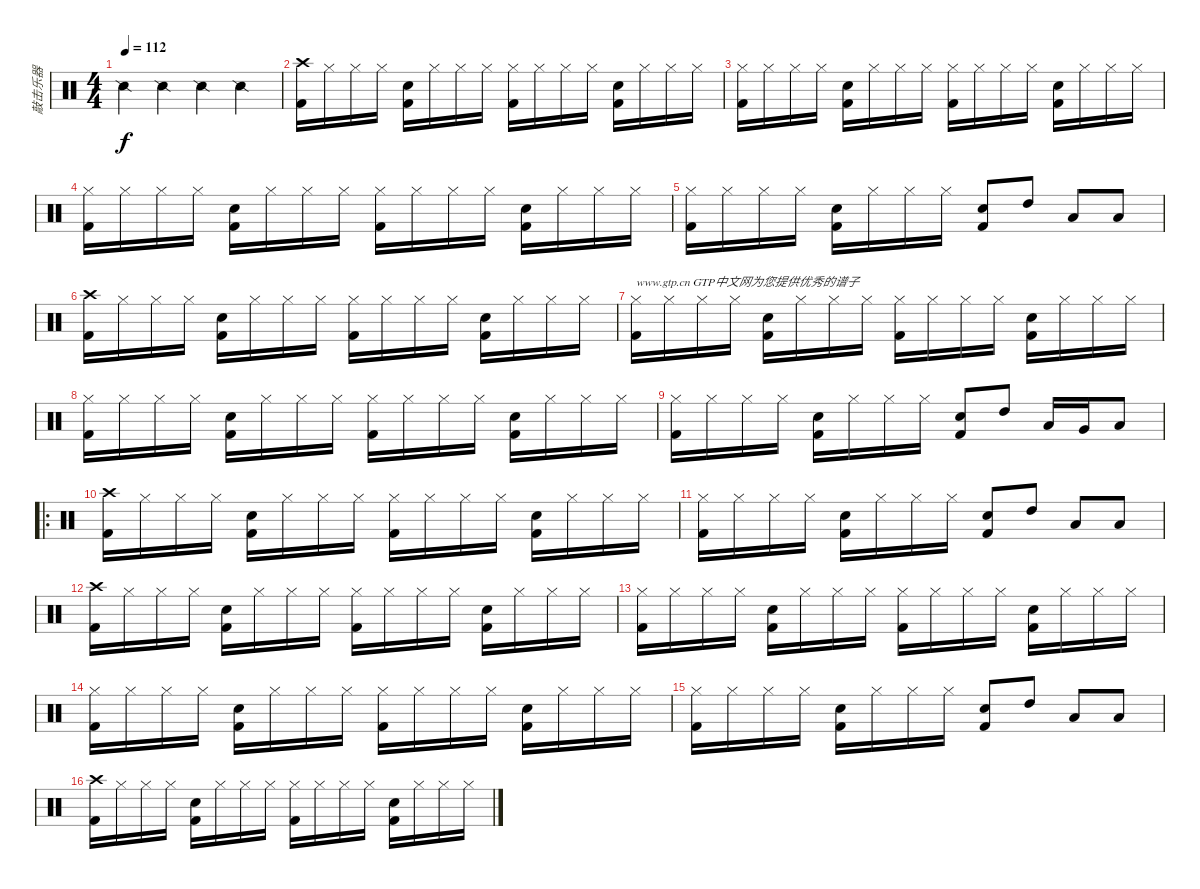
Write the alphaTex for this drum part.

\track ("敲击乐器" "敲击乐器") {instrument percussion}
\staff {score}
\articulation defaults
\ts (4 4)
\tempo 112
\clef neutral
\ks c "Snare (side stick) 2".4{dy f} "Snare (side stick) 2".4 "Snare (side stick) 2".4 "Snare (side stick) 2".4
|
("Crash high (hit)" "Kick (hit) 2").16 "Hi-Hat (closed)".16 "Hi-Hat (closed)".16 "Hi-Hat (closed)".16 ("Snare (hit) 2" "Kick (hit) 2").16 "Hi-Hat (closed)".16 "Hi-Hat (closed)".16 "Hi-Hat (closed)".16 ("Hi-Hat (closed)" "Kick (hit) 2").16 "Hi-Hat (closed)".16 "Hi-Hat (closed)".16 "Hi-Hat (closed)".16 ("Snare (hit) 2" "Kick (hit) 2").16 "Hi-Hat (closed)".16 "Hi-Hat (closed)".16 "Hi-Hat (closed)".16 |
("Hi-Hat (closed)" "Kick (hit) 2").16 "Hi-Hat (closed)".16 "Hi-Hat (closed)".16 "Hi-Hat (closed)".16 ("Snare (hit) 2" "Kick (hit) 2").16 "Hi-Hat (closed)".16 "Hi-Hat (closed)".16 "Hi-Hat (closed)".16 ("Hi-Hat (closed)" "Kick (hit) 2").16 "Hi-Hat (closed)".16 "Hi-Hat (closed)".16 "Hi-Hat (closed)".16 ("Snare (hit) 2" "Kick (hit) 2").16 "Hi-Hat (closed)".16 "Hi-Hat (closed)".16 "Hi-Hat (closed)".16 |
("Hi-Hat (closed)" "Kick (hit) 2").16 "Hi-Hat (closed)".16 "Hi-Hat (closed)".16 "Hi-Hat (closed)".16 ("Snare (hit) 2" "Kick (hit) 2").16 "Hi-Hat (closed)".16 "Hi-Hat (closed)".16 "Hi-Hat (closed)".16 ("Hi-Hat (closed)" "Kick (hit) 2").16 "Hi-Hat (closed)".16 "Hi-Hat (closed)".16 "Hi-Hat (closed)".16 ("Snare (hit) 2" "Kick (hit) 2").16 "Hi-Hat (closed)".16 "Hi-Hat (closed)".16 "Hi-Hat (closed)".16 |
("Hi-Hat (closed)" "Kick (hit) 2").16 "Hi-Hat (closed)".16 "Hi-Hat (closed)".16 "Hi-Hat (closed)".16 ("Snare (hit) 2" "Kick (hit) 2").16 "Hi-Hat (closed)".16 "Hi-Hat (closed)".16 "Hi-Hat (closed)".16 ("Snare (hit) 2" "Kick (hit) 2").8 "High Tom (hit)".8 "Low Tom (hit)".8 "Low Floor Tom (hit)".8 |
("Crash high (hit)" "Kick (hit) 2").16 "Hi-Hat (closed)".16 "Hi-Hat (closed)".16 "Hi-Hat (closed)".16 ("Snare (hit) 2" "Kick (hit) 2").16 "Hi-Hat (closed)".16 "Hi-Hat (closed)".16 "Hi-Hat (closed)".16 ("Hi-Hat (closed)" "Kick (hit) 2").16 "Hi-Hat (closed)".16 "Hi-Hat (closed)".16 "Hi-Hat (closed)".16 ("Snare (hit) 2" "Kick (hit) 2").16 "Hi-Hat (closed)".16 "Hi-Hat (closed)".16 "Hi-Hat (closed)".16 |
("Hi-Hat (closed)" "Kick (hit) 2").16{txt "www.gtp.cn GTP中文网为您提供优秀的谱子"} "Hi-Hat (closed)".16 "Hi-Hat (closed)".16 "Hi-Hat (closed)".16 ("Snare (hit) 2" "Kick (hit) 2").16 "Hi-Hat (closed)".16 "Hi-Hat (closed)".16 "Hi-Hat (closed)".16 ("Hi-Hat (closed)" "Kick (hit) 2").16 "Hi-Hat (closed)".16 "Hi-Hat (closed)".16 "Hi-Hat (closed)".16 ("Snare (hit) 2" "Kick (hit) 2").16 "Hi-Hat (closed)".16 "Hi-Hat (closed)".16 "Hi-Hat (closed)".16 |
("Hi-Hat (closed)" "Kick (hit) 2").16 "Hi-Hat (closed)".16 "Hi-Hat (closed)".16 "Hi-Hat (closed)".16 ("Snare (hit) 2" "Kick (hit) 2").16 "Hi-Hat (closed)".16 "Hi-Hat (closed)".16 "Hi-Hat (closed)".16 ("Hi-Hat (closed)" "Kick (hit) 2").16 "Hi-Hat (closed)".16 "Hi-Hat (closed)".16 "Hi-Hat (closed)".16 ("Snare (hit) 2" "Kick (hit) 2").16 "Hi-Hat (closed)".16 "Hi-Hat (closed)".16 "Hi-Hat (closed)".16 |
("Hi-Hat (closed)" "Kick (hit) 2").16 "Hi-Hat (closed)".16 "Hi-Hat (closed)".16 "Hi-Hat (closed)".16 ("Snare (hit) 2" "Kick (hit) 2").16 "Hi-Hat (closed)".16 "Hi-Hat (closed)".16 "Hi-Hat (closed)".16 ("Snare (hit) 2" "Kick (hit) 2").8 "High Tom (hit)".8 "Low Tom (hit)".16 "Very Low Tom (hit)".16 "Low Floor Tom (hit)".8 |
\ro
("Crash high (hit)" "Kick (hit) 2").16 "Hi-Hat (closed)".16 "Hi-Hat (closed)".16 "Hi-Hat (closed)".16 ("Snare (hit) 2" "Kick (hit) 2").16 "Hi-Hat (closed)".16 "Hi-Hat (closed)".16 "Hi-Hat (closed)".16 ("Hi-Hat (closed)" "Kick (hit) 2").16 "Hi-Hat (closed)".16 "Hi-Hat (closed)".16 "Hi-Hat (closed)".16 ("Snare (hit) 2" "Kick (hit) 2").16 "Hi-Hat (closed)".16 "Hi-Hat (closed)".16 "Hi-Hat (closed)".16 |
("Hi-Hat (closed)" "Kick (hit) 2").16 "Hi-Hat (closed)".16 "Hi-Hat (closed)".16 "Hi-Hat (closed)".16 ("Snare (hit) 2" "Kick (hit) 2").16 "Hi-Hat (closed)".16 "Hi-Hat (closed)".16 "Hi-Hat (closed)".16 ("Snare (hit) 2" "Kick (hit) 2").8 "High Tom (hit)".8 "Low Tom (hit)".8 "Low Floor Tom (hit)".8 |
("Crash high (hit)" "Kick (hit) 2").16 "Hi-Hat (closed)".16 "Hi-Hat (closed)".16 "Hi-Hat (closed)".16 ("Snare (hit) 2" "Kick (hit) 2").16 "Hi-Hat (closed)".16 "Hi-Hat (closed)".16 "Hi-Hat (closed)".16 ("Hi-Hat (closed)" "Kick (hit) 2").16 "Hi-Hat (closed)".16 "Hi-Hat (closed)".16 "Hi-Hat (closed)".16 ("Snare (hit) 2" "Kick (hit) 2").16 "Hi-Hat (closed)".16 "Hi-Hat (closed)".16 "Hi-Hat (closed)".16 |
("Hi-Hat (closed)" "Kick (hit) 2").16 "Hi-Hat (closed)".16 "Hi-Hat (closed)".16 "Hi-Hat (closed)".16 ("Snare (hit) 2" "Kick (hit) 2").16 "Hi-Hat (closed)".16 "Hi-Hat (closed)".16 "Hi-Hat (closed)".16 ("Hi-Hat (closed)" "Kick (hit) 2").16 "Hi-Hat (closed)".16 "Hi-Hat (closed)".16 "Hi-Hat (closed)".16 ("Snare (hit) 2" "Kick (hit) 2").16 "Hi-Hat (closed)".16 "Hi-Hat (closed)".16 "Hi-Hat (closed)".16 |
("Hi-Hat (closed)" "Kick (hit) 2").16 "Hi-Hat (closed)".16 "Hi-Hat (closed)".16 "Hi-Hat (closed)".16 ("Snare (hit) 2" "Kick (hit) 2").16 "Hi-Hat (closed)".16 "Hi-Hat (closed)".16 "Hi-Hat (closed)".16 ("Hi-Hat (closed)" "Kick (hit) 2").16 "Hi-Hat (closed)".16 "Hi-Hat (closed)".16 "Hi-Hat (closed)".16 ("Snare (hit) 2" "Kick (hit) 2").16 "Hi-Hat (closed)".16 "Hi-Hat (closed)".16 "Hi-Hat (closed)".16 |
("Hi-Hat (closed)" "Kick (hit) 2").16 "Hi-Hat (closed)".16 "Hi-Hat (closed)".16 "Hi-Hat (closed)".16 ("Snare (hit) 2" "Kick (hit) 2").16 "Hi-Hat (closed)".16 "Hi-Hat (closed)".16 "Hi-Hat (closed)".16 ("Snare (hit) 2" "Kick (hit) 2").8 "High Tom (hit)".8 "Low Tom (hit)".8 "Low Floor Tom (hit)".8 |
("Crash high (hit)" "Kick (hit) 2").16 "Hi-Hat (closed)".16 "Hi-Hat (closed)".16 "Hi-Hat (closed)".16 ("Snare (hit) 2" "Kick (hit) 2").16 "Hi-Hat (closed)".16 "Hi-Hat (closed)".16 "Hi-Hat (closed)".16 ("Hi-Hat (closed)" "Kick (hit) 2").16 "Hi-Hat (closed)".16 "Hi-Hat (closed)".16 "Hi-Hat (closed)".16 ("Snare (hit) 2" "Kick (hit) 2").16 "Hi-Hat (closed)".16 "Hi-Hat (closed)".16 "Hi-Hat (closed)".16
